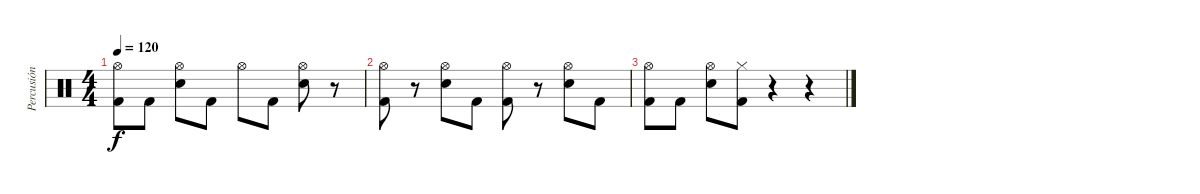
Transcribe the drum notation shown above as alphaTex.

\track ("Percusión" "Percusión") {instrument percussion}
\staff {score}
\articulation defaults
\ts (4 4)
\tempo 120
\clef neutral
\ks c
("Hi-Hat (open)" "Kick (hit) 2").8{dy f} "Kick (hit) 2".8 ("Hi-Hat (open)" "Snare (hit) 2").8 "Kick (hit) 2".8 "Hi-Hat (open)".8 "Kick (hit) 2".8 ("Hi-Hat (open)" "Snare (hit) 2").8 r.8 |
("Hi-Hat (open)" "Kick (hit) 2").8 r.8 ("Hi-Hat (open)" "Snare (hit) 2").8 "Kick (hit) 2".8 ("Hi-Hat (open)" "Kick (hit) 2").8 r.8 ("Hi-Hat (open)" "Snare (hit) 2").8 "Kick (hit) 2".8 |
("Hi-Hat (open)" "Kick (hit) 2").8 "Kick (hit) 2".8 ("Hi-Hat (open)" "Snare (hit) 2").8 ("Hi-Hat (closed)" "Kick (hit) 2").8 r.4 r.4
